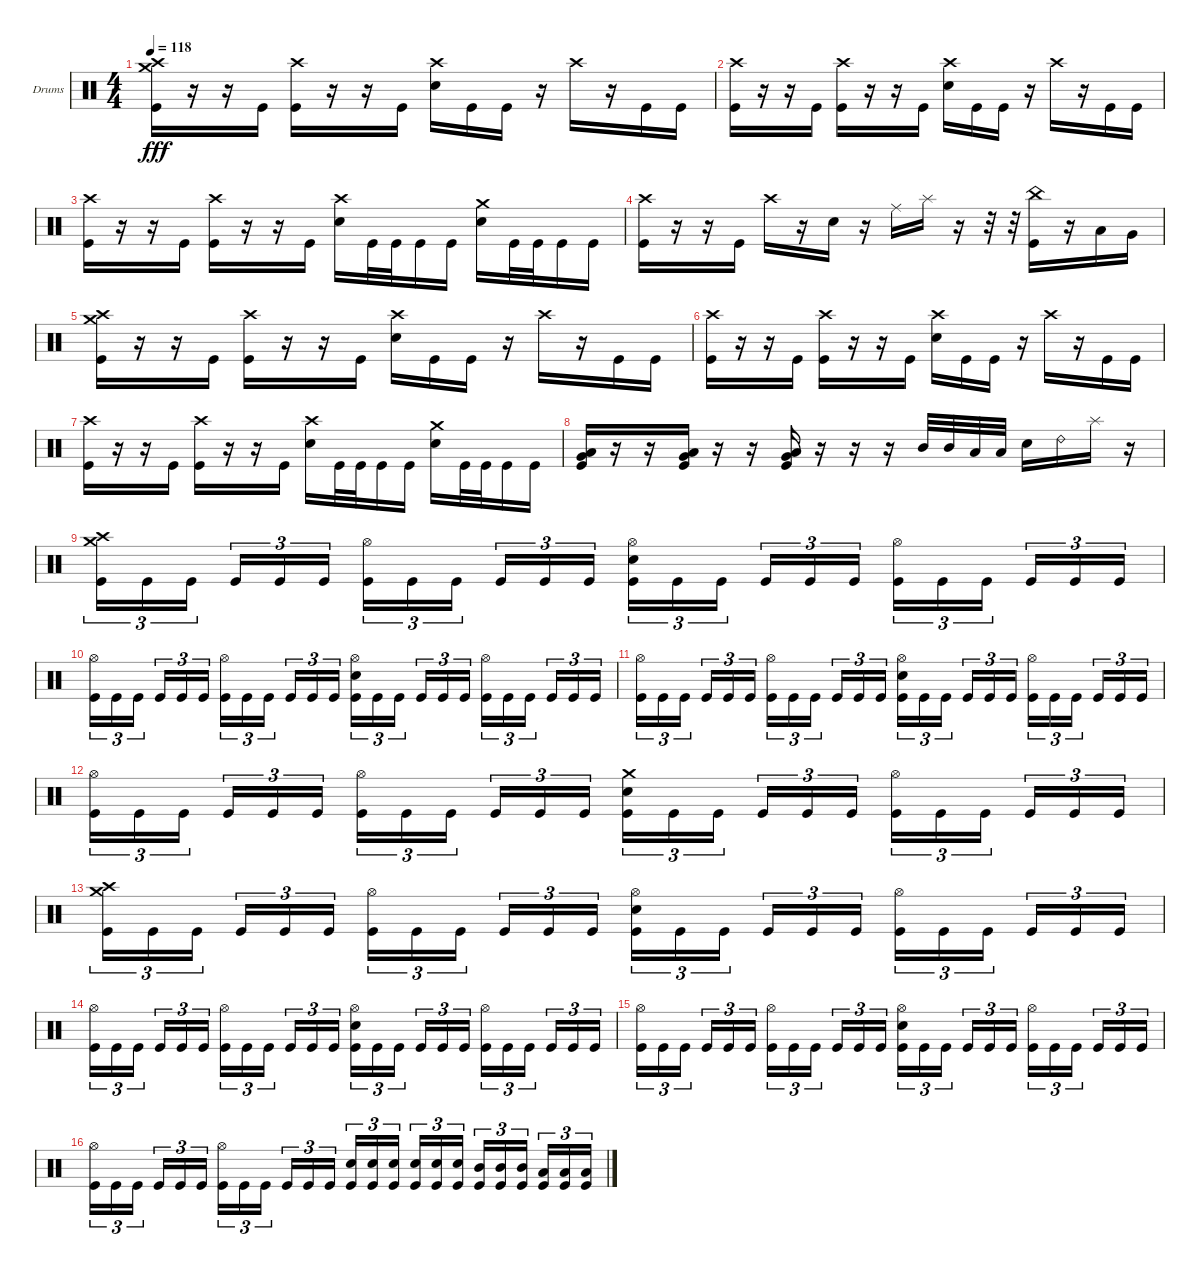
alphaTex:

\bracketExtendMode groupsimilarinstruments
\firstSystemTrackNameOrientation horizontal
\otherSystemsTrackNameOrientation horizontal
\track ("Drumkit" "Drums") {instrument percussion}
\staff {score}
\articulation defaults
\ts (4 4)
\tempo 118
\clef neutral
\ks c
("Crash medium (hit)" "Crash high (hit)" "Kick (hit)").16{dy fff} r.16 r.16 "Kick (hit)".16 ("Kick (hit)" "Crash high (hit)").16 r.16 r.16 "Kick (hit)".16 ("Snare (hit) 2" "Crash high (hit)").16 "Kick (hit)".16 "Kick (hit)".16 r.16 "Crash high (hit)".16 r.16 "Kick (hit)".16 "Kick (hit)".16 |
("Kick (hit)" "Crash high (hit)").16 r.16 r.16 "Kick (hit)".16 ("Kick (hit)" "Crash high (hit)").16 r.16 r.16 "Kick (hit)".16 ("Snare (hit) 2" "Crash high (hit)").16 "Kick (hit)".16 "Kick (hit)".16 r.16 "Crash high (hit)".16 r.16 "Kick (hit)".16 "Kick (hit)".16 |
("Kick (hit)" "Crash high (hit)").16 r.16 r.16 "Kick (hit)".16 ("Kick (hit)" "Crash high (hit)").16 r.16 r.16 "Kick (hit)".16 ("Snare (hit) 2" "Crash high (hit)").16 "Kick (hit)".32 "Kick (hit)".32 "Kick (hit)".16 "Kick (hit)".16 ("Snare (hit) 2" "Crash medium (hit)").16 "Kick (hit)".32 "Kick (hit)".32 "Kick (hit)".16 "Kick (hit)".16 |
("Kick (hit)" "Crash high (hit)").16 r.16 r.16 "Kick (hit)".16 "Crash high (hit)".16 r.16 "Snare (hit) 2".16 r.16 "Ride (middle)".16 "Splash (hit)".16 r.16 r.32 r.32 ("China (hit)" "Kick (hit)").16 r.16 "Low Tom (hit)".16 "Very Low Tom (hit)".16 |
("Crash medium (hit)" "Crash high (hit)" "Kick (hit)").16 r.16 r.16 "Kick (hit)".16 ("Kick (hit)" "Crash high (hit)").16 r.16 r.16 "Kick (hit)".16 ("Snare (hit) 2" "Crash high (hit)").16 "Kick (hit)".16 "Kick (hit)".16 r.16 "Crash high (hit)".16 r.16 "Kick (hit)".16 "Kick (hit)".16 |
("Kick (hit)" "Crash high (hit)").16 r.16 r.16 "Kick (hit)".16 ("Kick (hit)" "Crash high (hit)").16 r.16 r.16 "Kick (hit)".16 ("Snare (hit) 2" "Crash high (hit)").16 "Kick (hit)".16 "Kick (hit)".16 r.16 "Crash high (hit)".16 r.16 "Kick (hit)".16 "Kick (hit)".16 |
("Kick (hit)" "Crash high (hit)").16 r.16 r.16 "Kick (hit)".16 ("Kick (hit)" "Crash high (hit)").16 r.16 r.16 "Kick (hit)".16 ("Snare (hit) 2" "Crash high (hit)").16 "Kick (hit)".32 "Kick (hit)".32 "Kick (hit)".16 "Kick (hit)".16 ("Snare (hit) 2" "Crash medium (hit)").16 "Kick (hit)".32 "Kick (hit)".32 "Kick (hit)".16 "Kick (hit)".16 |
("Kick (hit)" "Very Low Tom (hit)" "Low Tom (hit)").16 r.16 r.16 ("Kick (hit)" "Very Low Tom (hit)" "Low Tom (hit)").16 r.16 r.16 ("Kick (hit)" "Low Tom (hit)" "Very Low Tom (hit)").16 r.16 r.16 r.16 "Mid Tom (hit)".32 "Mid Tom (hit)".32 "Low Tom (hit)".32 "Low Tom (hit)".32 "Snare (hit) 2".16 "Ride (bell) 2".16 "Splash (hit)".16 r.16 |
("Kick (hit)" "Crash medium (hit)" "Crash high (hit)").16{tu (3 2)} "Kick (hit)".16{tu (3 2)} "Kick (hit)".16{tu (3 2)} "Kick (hit)".16{tu (3 2)} "Kick (hit)".16{tu (3 2)} "Kick (hit)".16{tu (3 2)} ("Kick (hit)" "Hi-Hat (open)").16{tu (3 2)} "Kick (hit)".16{tu (3 2)} "Kick (hit)".16{tu (3 2)} "Kick (hit)".16{tu (3 2)} "Kick (hit)".16{tu (3 2)} "Kick (hit)".16{tu (3 2)} ("Kick (hit)" "Hi-Hat (open)" "Snare (hit) 2").16{tu (3 2)} "Kick (hit)".16{tu (3 2)} "Kick (hit)".16{tu (3 2)} "Kick (hit)".16{tu (3 2)} "Kick (hit)".16{tu (3 2)} "Kick (hit)".16{tu (3 2)} ("Kick (hit)" "Hi-Hat (open)").16{tu (3 2)} "Kick (hit)".16{tu (3 2)} "Kick (hit)".16{tu (3 2)} "Kick (hit)".16{tu (3 2)} "Kick (hit)".16{tu (3 2)} "Kick (hit)".16{tu (3 2)} |
("Kick (hit)" "Hi-Hat (open)").16{tu (3 2)} "Kick (hit)".16{tu (3 2)} "Kick (hit)".16{tu (3 2)} "Kick (hit)".16{tu (3 2)} "Kick (hit)".16{tu (3 2)} "Kick (hit)".16{tu (3 2)} ("Kick (hit)" "Hi-Hat (open)").16{tu (3 2)} "Kick (hit)".16{tu (3 2)} "Kick (hit)".16{tu (3 2)} "Kick (hit)".16{tu (3 2)} "Kick (hit)".16{tu (3 2)} "Kick (hit)".16{tu (3 2)} ("Kick (hit)" "Hi-Hat (open)" "Snare (hit) 2").16{tu (3 2)} "Kick (hit)".16{tu (3 2)} "Kick (hit)".16{tu (3 2)} "Kick (hit)".16{tu (3 2)} "Kick (hit)".16{tu (3 2)} "Kick (hit)".16{tu (3 2)} ("Kick (hit)" "Hi-Hat (open)").16{tu (3 2)} "Kick (hit)".16{tu (3 2)} "Kick (hit)".16{tu (3 2)} "Kick (hit)".16{tu (3 2)} "Kick (hit)".16{tu (3 2)} "Kick (hit)".16{tu (3 2)} |
("Kick (hit)" "Hi-Hat (open)").16{tu (3 2)} "Kick (hit)".16{tu (3 2)} "Kick (hit)".16{tu (3 2)} "Kick (hit)".16{tu (3 2)} "Kick (hit)".16{tu (3 2)} "Kick (hit)".16{tu (3 2)} ("Kick (hit)" "Hi-Hat (open)").16{tu (3 2)} "Kick (hit)".16{tu (3 2)} "Kick (hit)".16{tu (3 2)} "Kick (hit)".16{tu (3 2)} "Kick (hit)".16{tu (3 2)} "Kick (hit)".16{tu (3 2)} ("Kick (hit)" "Hi-Hat (open)" "Snare (hit) 2").16{tu (3 2)} "Kick (hit)".16{tu (3 2)} "Kick (hit)".16{tu (3 2)} "Kick (hit)".16{tu (3 2)} "Kick (hit)".16{tu (3 2)} "Kick (hit)".16{tu (3 2)} ("Kick (hit)" "Hi-Hat (open)").16{tu (3 2)} "Kick (hit)".16{tu (3 2)} "Kick (hit)".16{tu (3 2)} "Kick (hit)".16{tu (3 2)} "Kick (hit)".16{tu (3 2)} "Kick (hit)".16{tu (3 2)} |
("Kick (hit)" "Hi-Hat (open)").16{tu (3 2)} "Kick (hit)".16{tu (3 2)} "Kick (hit)".16{tu (3 2)} "Kick (hit)".16{tu (3 2)} "Kick (hit)".16{tu (3 2)} "Kick (hit)".16{tu (3 2)} ("Kick (hit)" "Hi-Hat (open)").16{tu (3 2)} "Kick (hit)".16{tu (3 2)} "Kick (hit)".16{tu (3 2)} "Kick (hit)".16{tu (3 2)} "Kick (hit)".16{tu (3 2)} "Kick (hit)".16{tu (3 2)} ("Kick (hit)" "Snare (hit) 2" "Crash medium (hit)").16{tu (3 2)} "Kick (hit)".16{tu (3 2)} "Kick (hit)".16{tu (3 2)} "Kick (hit)".16{tu (3 2)} "Kick (hit)".16{tu (3 2)} "Kick (hit)".16{tu (3 2)} ("Kick (hit)" "Hi-Hat (open)").16{tu (3 2)} "Kick (hit)".16{tu (3 2)} "Kick (hit)".16{tu (3 2)} "Kick (hit)".16{tu (3 2)} "Kick (hit)".16{tu (3 2)} "Kick (hit)".16{tu (3 2)} |
("Kick (hit)" "Crash medium (hit)" "Crash high (hit)").16{tu (3 2)} "Kick (hit)".16{tu (3 2)} "Kick (hit)".16{tu (3 2)} "Kick (hit)".16{tu (3 2)} "Kick (hit)".16{tu (3 2)} "Kick (hit)".16{tu (3 2)} ("Kick (hit)" "Hi-Hat (open)").16{tu (3 2)} "Kick (hit)".16{tu (3 2)} "Kick (hit)".16{tu (3 2)} "Kick (hit)".16{tu (3 2)} "Kick (hit)".16{tu (3 2)} "Kick (hit)".16{tu (3 2)} ("Kick (hit)" "Hi-Hat (open)" "Snare (hit) 2").16{tu (3 2)} "Kick (hit)".16{tu (3 2)} "Kick (hit)".16{tu (3 2)} "Kick (hit)".16{tu (3 2)} "Kick (hit)".16{tu (3 2)} "Kick (hit)".16{tu (3 2)} ("Kick (hit)" "Hi-Hat (open)").16{tu (3 2)} "Kick (hit)".16{tu (3 2)} "Kick (hit)".16{tu (3 2)} "Kick (hit)".16{tu (3 2)} "Kick (hit)".16{tu (3 2)} "Kick (hit)".16{tu (3 2)} |
("Kick (hit)" "Hi-Hat (open)").16{tu (3 2)} "Kick (hit)".16{tu (3 2)} "Kick (hit)".16{tu (3 2)} "Kick (hit)".16{tu (3 2)} "Kick (hit)".16{tu (3 2)} "Kick (hit)".16{tu (3 2)} ("Kick (hit)" "Hi-Hat (open)").16{tu (3 2)} "Kick (hit)".16{tu (3 2)} "Kick (hit)".16{tu (3 2)} "Kick (hit)".16{tu (3 2)} "Kick (hit)".16{tu (3 2)} "Kick (hit)".16{tu (3 2)} ("Kick (hit)" "Hi-Hat (open)" "Snare (hit) 2").16{tu (3 2)} "Kick (hit)".16{tu (3 2)} "Kick (hit)".16{tu (3 2)} "Kick (hit)".16{tu (3 2)} "Kick (hit)".16{tu (3 2)} "Kick (hit)".16{tu (3 2)} ("Kick (hit)" "Hi-Hat (open)").16{tu (3 2)} "Kick (hit)".16{tu (3 2)} "Kick (hit)".16{tu (3 2)} "Kick (hit)".16{tu (3 2)} "Kick (hit)".16{tu (3 2)} "Kick (hit)".16{tu (3 2)} |
("Kick (hit)" "Hi-Hat (open)").16{tu (3 2)} "Kick (hit)".16{tu (3 2)} "Kick (hit)".16{tu (3 2)} "Kick (hit)".16{tu (3 2)} "Kick (hit)".16{tu (3 2)} "Kick (hit)".16{tu (3 2)} ("Kick (hit)" "Hi-Hat (open)").16{tu (3 2)} "Kick (hit)".16{tu (3 2)} "Kick (hit)".16{tu (3 2)} "Kick (hit)".16{tu (3 2)} "Kick (hit)".16{tu (3 2)} "Kick (hit)".16{tu (3 2)} ("Kick (hit)" "Hi-Hat (open)" "Snare (hit) 2").16{tu (3 2)} "Kick (hit)".16{tu (3 2)} "Kick (hit)".16{tu (3 2)} "Kick (hit)".16{tu (3 2)} "Kick (hit)".16{tu (3 2)} "Kick (hit)".16{tu (3 2)} ("Kick (hit)" "Hi-Hat (open)").16{tu (3 2)} "Kick (hit)".16{tu (3 2)} "Kick (hit)".16{tu (3 2)} "Kick (hit)".16{tu (3 2)} "Kick (hit)".16{tu (3 2)} "Kick (hit)".16{tu (3 2)} |
("Kick (hit)" "Hi-Hat (open)").16{tu (3 2)} "Kick (hit)".16{tu (3 2)} "Kick (hit)".16{tu (3 2)} "Kick (hit)".16{tu (3 2)} "Kick (hit)".16{tu (3 2)} "Kick (hit)".16{tu (3 2)} ("Kick (hit)" "Hi-Hat (open)").16{tu (3 2)} "Kick (hit)".16{tu (3 2)} "Kick (hit)".16{tu (3 2)} "Kick (hit)".16{tu (3 2)} "Kick (hit)".16{tu (3 2)} "Kick (hit)".16{tu (3 2)} ("Kick (hit)" "Snare (hit) 2").16{tu (3 2)} ("Kick (hit)" "Snare (hit) 2").16{tu (3 2)} ("Kick (hit)" "Snare (hit) 2").16{tu (3 2)} ("Kick (hit)" "Snare (hit) 2").16{tu (3 2)} ("Kick (hit)" "Snare (hit) 2").16{tu (3 2)} ("Kick (hit)" "Snare (hit) 2").16{tu (3 2)} ("Kick (hit)" "Mid Tom (hit)").16{tu (3 2)} ("Kick (hit)" "Mid Tom (hit)").16{tu (3 2)} ("Kick (hit)" "Mid Tom (hit)").16{tu (3 2)} ("Kick (hit)" "Low Tom (hit)").16{tu (3 2)} ("Kick (hit)" "Low Tom (hit)").16{tu (3 2)} ("Kick (hit)" "Low Tom (hit)").16{tu (3 2)}
